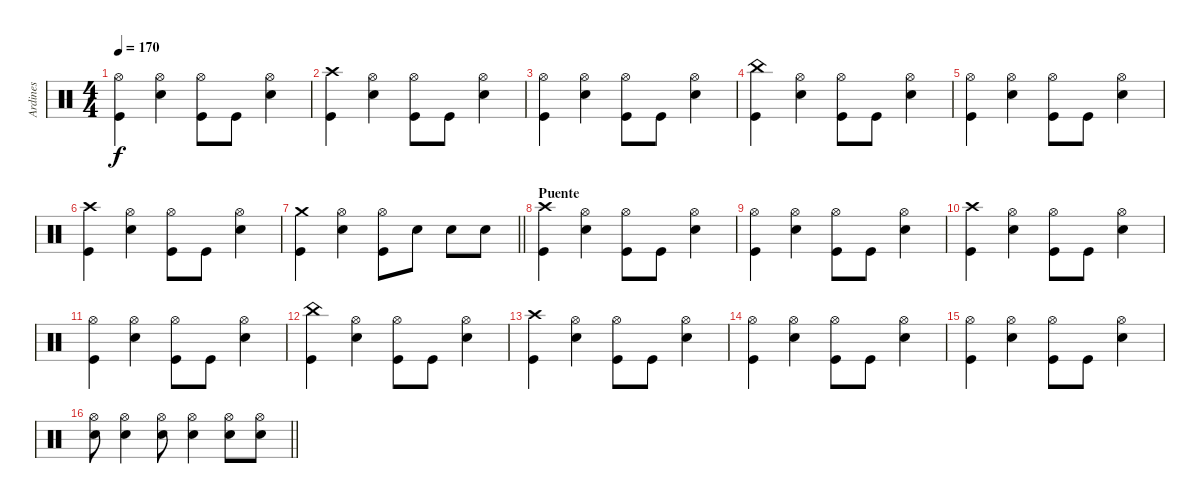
\track ("Ardines" "Ardines") {instrument percussion}
\staff {score}
\articulation defaults
\ts (4 4)
\tempo 170
\clef neutral
\ks c
("Kick (hit)" "Hi-Hat (open)").4{dy f} ("Snare (hit) 2" "Hi-Hat (open)").4 ("Kick (hit)" "Hi-Hat (open)").8 "Kick (hit)".8 ("Snare (hit) 2" "Hi-Hat (open)").4 |
("Kick (hit)" "Crash high (hit)").4 ("Snare (hit) 2" "Hi-Hat (open)").4 ("Kick (hit)" "Hi-Hat (open)").8 "Kick (hit)".8 ("Snare (hit) 2" "Hi-Hat (open)").4 |
("Kick (hit)" "Hi-Hat (open)").4 ("Snare (hit) 2" "Hi-Hat (open)").4 ("Kick (hit)" "Hi-Hat (open)").8 "Kick (hit)".8 ("Snare (hit) 2" "Hi-Hat (open)").4 |
("Kick (hit)" "China (hit)").4 ("Snare (hit) 2" "Hi-Hat (open)").4 ("Kick (hit)" "Hi-Hat (open)").8 "Kick (hit)".8 ("Snare (hit) 2" "Hi-Hat (open)").4 |
("Kick (hit)" "Hi-Hat (open)").4 ("Snare (hit) 2" "Hi-Hat (open)").4 ("Kick (hit)" "Hi-Hat (open)").8 "Kick (hit)".8 ("Snare (hit) 2" "Hi-Hat (open)").4 |
("Kick (hit)" "Crash high (hit)").4 ("Snare (hit) 2" "Hi-Hat (open)").4 ("Kick (hit)" "Hi-Hat (open)").8 "Kick (hit)".8 ("Snare (hit) 2" "Hi-Hat (open)").4 |
\barLineRight lightlight
("Kick (hit)" "Crash medium (hit)").4 ("Snare (hit) 2" "Hi-Hat (open)").4 ("Kick (hit)" "Hi-Hat (open)").8 "Snare (hit) 2".8 "Snare (hit) 2".8 "Snare (hit) 2".8 |
\section ("" "Puente")
("Kick (hit)" "Crash high (hit)").4 ("Snare (hit) 2" "Hi-Hat (open)").4 ("Kick (hit)" "Hi-Hat (open)").8 "Kick (hit)".8 ("Snare (hit) 2" "Hi-Hat (open)").4 |
("Kick (hit)" "Hi-Hat (open)").4 ("Snare (hit) 2" "Hi-Hat (open)").4 ("Kick (hit)" "Hi-Hat (open)").8 "Kick (hit)".8 ("Snare (hit) 2" "Hi-Hat (open)").4 |
("Kick (hit)" "Crash high (hit)").4 ("Snare (hit) 2" "Hi-Hat (open)").4 ("Kick (hit)" "Hi-Hat (open)").8 "Kick (hit)".8 ("Snare (hit) 2" "Hi-Hat (open)").4 |
("Kick (hit)" "Hi-Hat (open)").4 ("Snare (hit) 2" "Hi-Hat (open)").4 ("Kick (hit)" "Hi-Hat (open)").8 "Kick (hit)".8 ("Snare (hit) 2" "Hi-Hat (open)").4 |
("Kick (hit)" "China (hit)").4 ("Snare (hit) 2" "Hi-Hat (open)").4 ("Kick (hit)" "Hi-Hat (open)").8 "Kick (hit)".8 ("Snare (hit) 2" "Hi-Hat (open)").4 |
("Kick (hit)" "Crash high (hit)").4 ("Snare (hit) 2" "Hi-Hat (open)").4 ("Kick (hit)" "Hi-Hat (open)").8 "Kick (hit)".8 ("Snare (hit) 2" "Hi-Hat (open)").4 |
("Kick (hit)" "Hi-Hat (open)").4 ("Snare (hit) 2" "Hi-Hat (open)").4 ("Kick (hit)" "Hi-Hat (open)").8 "Kick (hit)".8 ("Snare (hit) 2" "Hi-Hat (open)").4 |
("Kick (hit)" "Hi-Hat (open)").4 ("Snare (hit) 2" "Hi-Hat (open)").4 ("Kick (hit)" "Hi-Hat (open)").8 "Kick (hit)".8 ("Snare (hit) 2" "Hi-Hat (open)").4 |
\barLineRight lightlight
("Hi-Hat (open)" "Snare (hit) 2").8 ("Hi-Hat (open)" "Snare (hit) 2").4 ("Hi-Hat (open)" "Snare (hit) 2").8 ("Hi-Hat (open)" "Snare (hit) 2").4 ("Hi-Hat (open)" "Snare (hit) 2").8 ("Hi-Hat (open)" "Snare (hit) 2").8
